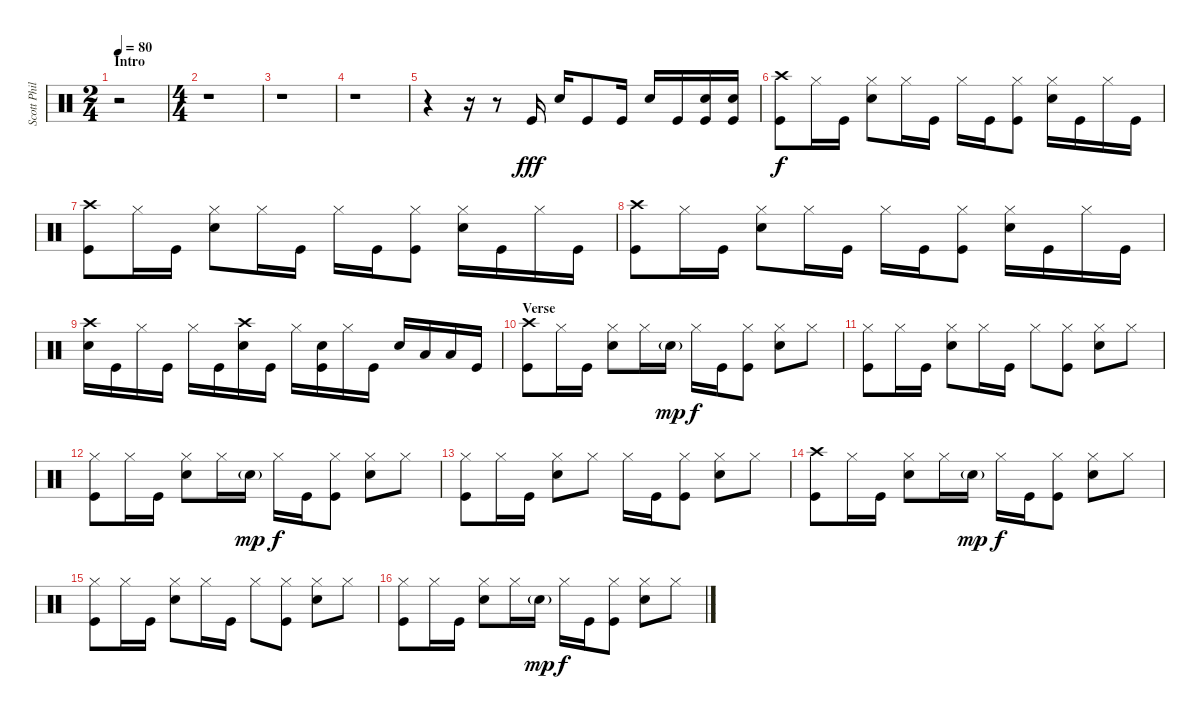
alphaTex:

\track ("Scott Phillips" "Scott Phil") {instrument percussion}
\staff {score}
\articulation defaults
\ts (2 4)
\section ("" "Intro")
\tempo 80
\clef neutral
\ks c
r.2{dy fff} |
\ts (4 4)
r.1 |
r.1 |
r.1 |
r.4 r.16 r.8 "Kick (hit)".16 "Snare (hit) 2".16 "Kick (hit)".8 "Kick (hit)".16 "Snare (hit) 2".16 "Kick (hit)".16 ("Snare (hit) 2" "Kick (hit)").16 ("Snare (hit) 2" "Kick (hit)").16 |
("Crash high (hit)" "Kick (hit)").8{dy f} "Hi-Hat (closed)".16 "Kick (hit)".16 ("Hi-Hat (closed)" "Snare (hit) 2").8 "Hi-Hat (closed)".16 "Kick (hit)".16 "Hi-Hat (closed)".16 "Kick (hit)".16 ("Hi-Hat (closed)" "Kick (hit)").8 ("Hi-Hat (closed)" "Snare (hit) 2").16 "Kick (hit)".16 "Hi-Hat (closed)".16 "Kick (hit)".16 |
("Crash high (hit)" "Kick (hit)").8 "Hi-Hat (closed)".16 "Kick (hit)".16 ("Hi-Hat (closed)" "Snare (hit) 2").8 "Hi-Hat (closed)".16 "Kick (hit)".16 "Hi-Hat (closed)".16 "Kick (hit)".16 ("Hi-Hat (closed)" "Kick (hit)").8 ("Hi-Hat (closed)" "Snare (hit) 2").16 "Kick (hit)".16 "Hi-Hat (closed)".16 "Kick (hit)".16 |
("Crash high (hit)" "Kick (hit)").8 "Hi-Hat (closed)".16 "Kick (hit)".16 ("Hi-Hat (closed)" "Snare (hit) 2").8 "Hi-Hat (closed)".16 "Kick (hit)".16 "Hi-Hat (closed)".16 "Kick (hit)".16 ("Hi-Hat (closed)" "Kick (hit)").8 ("Hi-Hat (closed)" "Snare (hit) 2").16 "Kick (hit)".16 "Hi-Hat (closed)".16 "Kick (hit)".16 |
("Crash high (hit)" "Snare (hit) 2").16 "Kick (hit)".16 "Hi-Hat (closed)".16 "Kick (hit)".16 "Hi-Hat (closed)".16 "Kick (hit)".16 ("Crash high (hit)" "Snare (hit) 2").16 "Kick (hit)".16 "Hi-Hat (closed)".16 ("Snare (hit) 2" "Kick (hit)").16 "Hi-Hat (closed)".16 "Kick (hit)".16 "Snare (hit) 2".16 "Low Tom (hit)".16 "Low Tom (hit)".16 "Kick (hit)".16 |
\section ("" "Verse")
("Crash high (hit)" "Kick (hit)").8 "Hi-Hat (closed)".16 "Kick (hit)".16 ("Hi-Hat (closed)" "Snare (hit) 2").8 "Hi-Hat (closed)".16 "Snare (hit) 2"{g}.16{dy mp} "Hi-Hat (closed)".16{dy f} "Kick (hit)".16 ("Hi-Hat (closed)" "Kick (hit)").8 ("Hi-Hat (closed)" "Snare (hit) 2").8 "Hi-Hat (closed)".8 |
("Hi-Hat (closed)" "Kick (hit)").8 "Hi-Hat (closed)".16 "Kick (hit)".16 ("Hi-Hat (closed)" "Snare (hit) 2").8 "Hi-Hat (closed)".16 "Kick (hit)".16 "Hi-Hat (closed)".8 ("Hi-Hat (closed)" "Kick (hit)").8 ("Hi-Hat (closed)" "Snare (hit) 2").8 "Hi-Hat (closed)".8 |
("Hi-Hat (closed)" "Kick (hit)").8 "Hi-Hat (closed)".16 "Kick (hit)".16 ("Hi-Hat (closed)" "Snare (hit) 2").8 "Hi-Hat (closed)".16 "Snare (hit) 2"{g}.16{dy mp} "Hi-Hat (closed)".16{dy f} "Kick (hit)".16 ("Hi-Hat (closed)" "Kick (hit)").8 ("Hi-Hat (closed)" "Snare (hit) 2").8 "Hi-Hat (closed)".8 |
("Hi-Hat (closed)" "Kick (hit)").8 "Hi-Hat (closed)".16 "Kick (hit)".16 ("Hi-Hat (closed)" "Snare (hit) 2").8 "Hi-Hat (closed)".8 "Hi-Hat (closed)".16 "Kick (hit)".16 ("Hi-Hat (closed)" "Kick (hit)").8 ("Hi-Hat (closed)" "Snare (hit) 2").8 "Hi-Hat (closed)".8 |
("Crash high (hit)" "Kick (hit)").8 "Hi-Hat (closed)".16 "Kick (hit)".16 ("Hi-Hat (closed)" "Snare (hit) 2").8 "Hi-Hat (closed)".16 "Snare (hit) 2"{g}.16{dy mp} "Hi-Hat (closed)".16{dy f} "Kick (hit)".16 ("Hi-Hat (closed)" "Kick (hit)").8 ("Hi-Hat (closed)" "Snare (hit) 2").8 "Hi-Hat (closed)".8 |
("Hi-Hat (closed)" "Kick (hit)").8 "Hi-Hat (closed)".16 "Kick (hit)".16 ("Hi-Hat (closed)" "Snare (hit) 2").8 "Hi-Hat (closed)".16 "Kick (hit)".16 "Hi-Hat (closed)".8 ("Hi-Hat (closed)" "Kick (hit)").8 ("Hi-Hat (closed)" "Snare (hit) 2").8 "Hi-Hat (closed)".8 |
("Hi-Hat (closed)" "Kick (hit)").8 "Hi-Hat (closed)".16 "Kick (hit)".16 ("Hi-Hat (closed)" "Snare (hit) 2").8 "Hi-Hat (closed)".16 "Snare (hit) 2"{g}.16{dy mp} "Hi-Hat (closed)".16{dy f} "Kick (hit)".16 ("Hi-Hat (closed)" "Kick (hit)").8 ("Hi-Hat (closed)" "Snare (hit) 2").8 "Hi-Hat (closed)".8
